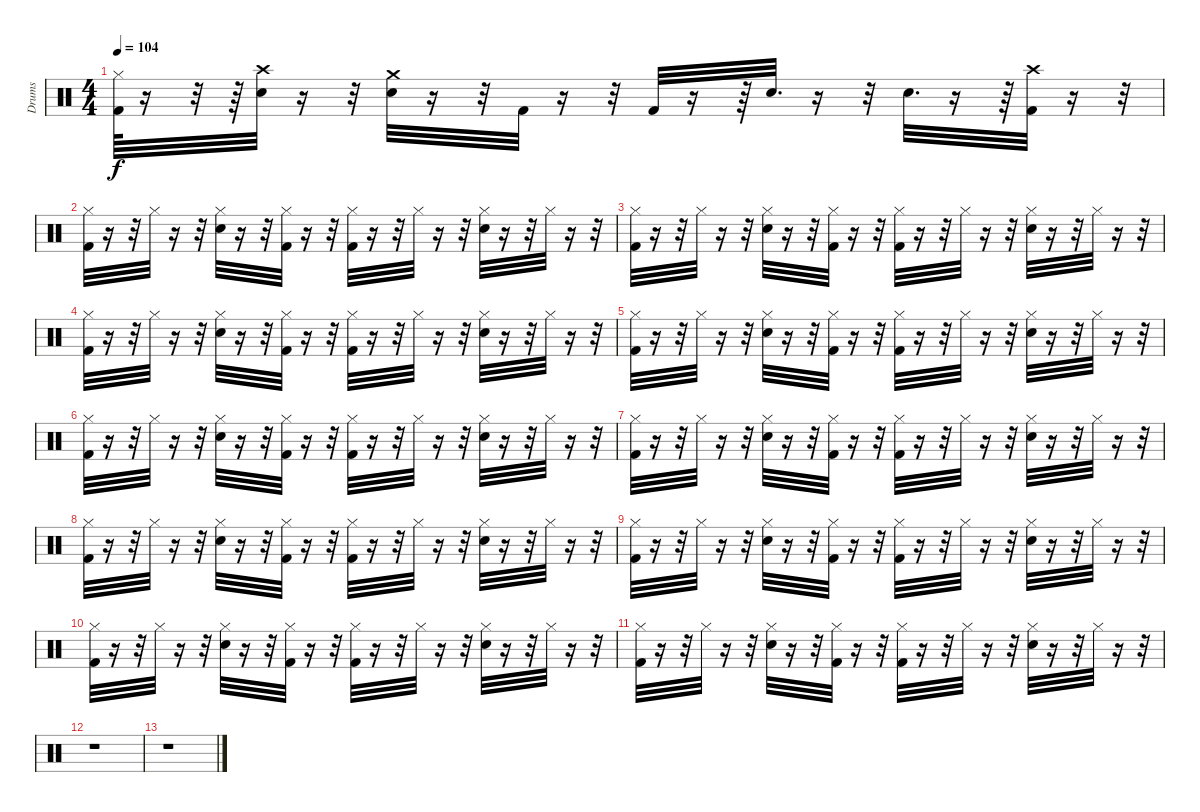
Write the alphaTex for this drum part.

\track ("Drums" "Drums") {instrument percussion}
\staff {score}
\articulation defaults
\ts (4 4)
\tempo 104
\clef neutral
\ks c
("Hi-Hat (closed)" "Kick (hit) 2").64{dy f} r.16 r.32 r.64 ("Crash high (hit)" "Snare (hit) 2").32 r.16 r.32 ("Crash medium (hit)" "Snare (hit) 2").32 r.16 r.32 "Kick (hit) 2".32 r.16 r.32 "Kick (hit) 2".32 r.16 r.64 "Snare (hit) 2".32{d} r.16 r.32 "Snare (hit) 2".32{d} r.16 r.64 ("Crash high (hit)" "Kick (hit) 2").32 r.16 r.32 |
("Hi-Hat (closed)" "Kick (hit) 2").32 r.16 r.32 "Hi-Hat (closed)".32 r.16 r.32 ("Hi-Hat (closed)" "Snare (hit) 2").32 r.16 r.32 ("Hi-Hat (closed)" "Kick (hit) 2").32 r.16 r.32 ("Hi-Hat (closed)" "Kick (hit) 2").32 r.16 r.32 "Hi-Hat (closed)".32 r.16 r.32 ("Hi-Hat (closed)" "Snare (hit) 2").32 r.16 r.32 "Hi-Hat (closed)".32 r.16 r.32 |
("Hi-Hat (closed)" "Kick (hit) 2").32 r.16 r.32 "Hi-Hat (closed)".32 r.16 r.32 ("Hi-Hat (closed)" "Snare (hit) 2").32 r.16 r.32 ("Hi-Hat (closed)" "Kick (hit) 2").32 r.16 r.32 ("Hi-Hat (closed)" "Kick (hit) 2").32 r.16 r.32 "Hi-Hat (closed)".32 r.16 r.32 ("Hi-Hat (closed)" "Snare (hit) 2").32 r.16 r.32 "Hi-Hat (closed)".32 r.16 r.32 |
("Hi-Hat (closed)" "Kick (hit) 2").32 r.16 r.32 "Hi-Hat (closed)".32 r.16 r.32 ("Hi-Hat (closed)" "Snare (hit) 2").32 r.16 r.32 ("Hi-Hat (closed)" "Kick (hit) 2").32 r.16 r.32 ("Hi-Hat (closed)" "Kick (hit) 2").32 r.16 r.32 "Hi-Hat (closed)".32 r.16 r.32 ("Hi-Hat (closed)" "Snare (hit) 2").32 r.16 r.32 "Hi-Hat (closed)".32 r.16 r.32 |
("Hi-Hat (closed)" "Kick (hit) 2").32 r.16 r.32 "Hi-Hat (closed)".32 r.16 r.32 ("Hi-Hat (closed)" "Snare (hit) 2").32 r.16 r.32 ("Hi-Hat (closed)" "Kick (hit) 2").32 r.16 r.32 ("Hi-Hat (closed)" "Kick (hit) 2").32 r.16 r.32 "Hi-Hat (closed)".32 r.16 r.32 ("Hi-Hat (closed)" "Snare (hit) 2").32 r.16 r.32 "Hi-Hat (closed)".32 r.16 r.32 |
("Hi-Hat (closed)" "Kick (hit) 2").32 r.16 r.32 "Hi-Hat (closed)".32 r.16 r.32 ("Hi-Hat (closed)" "Snare (hit) 2").32 r.16 r.32 ("Hi-Hat (closed)" "Kick (hit) 2").32 r.16 r.32 ("Hi-Hat (closed)" "Kick (hit) 2").32 r.16 r.32 "Hi-Hat (closed)".32 r.16 r.32 ("Hi-Hat (closed)" "Snare (hit) 2").32 r.16 r.32 "Hi-Hat (closed)".32 r.16 r.32 |
("Hi-Hat (closed)" "Kick (hit) 2").32 r.16 r.32 "Hi-Hat (closed)".32 r.16 r.32 ("Hi-Hat (closed)" "Snare (hit) 2").32 r.16 r.32 ("Hi-Hat (closed)" "Kick (hit) 2").32 r.16 r.32 ("Hi-Hat (closed)" "Kick (hit) 2").32 r.16 r.32 "Hi-Hat (closed)".32 r.16 r.32 ("Hi-Hat (closed)" "Snare (hit) 2").32 r.16 r.32 "Hi-Hat (closed)".32 r.16 r.32 |
("Hi-Hat (closed)" "Kick (hit) 2").32 r.16 r.32 "Hi-Hat (closed)".32 r.16 r.32 ("Hi-Hat (closed)" "Snare (hit) 2").32 r.16 r.32 ("Hi-Hat (closed)" "Kick (hit) 2").32 r.16 r.32 ("Hi-Hat (closed)" "Kick (hit) 2").32 r.16 r.32 "Hi-Hat (closed)".32 r.16 r.32 ("Hi-Hat (closed)" "Snare (hit) 2").32 r.16 r.32 "Hi-Hat (closed)".32 r.16 r.32 |
("Hi-Hat (closed)" "Kick (hit) 2").32 r.16 r.32 "Hi-Hat (closed)".32 r.16 r.32 ("Hi-Hat (closed)" "Snare (hit) 2").32 r.16 r.32 ("Hi-Hat (closed)" "Kick (hit) 2").32 r.16 r.32 ("Hi-Hat (closed)" "Kick (hit) 2").32 r.16 r.32 "Hi-Hat (closed)".32 r.16 r.32 ("Hi-Hat (closed)" "Snare (hit) 2").32 r.16 r.32 "Hi-Hat (closed)".32 r.16 r.32 |
("Hi-Hat (closed)" "Kick (hit) 2").32 r.16 r.32 "Hi-Hat (closed)".32 r.16 r.32 ("Hi-Hat (closed)" "Snare (hit) 2").32 r.16 r.32 ("Hi-Hat (closed)" "Kick (hit) 2").32 r.16 r.32 ("Hi-Hat (closed)" "Kick (hit) 2").32 r.16 r.32 "Hi-Hat (closed)".32 r.16 r.32 ("Hi-Hat (closed)" "Snare (hit) 2").32 r.16 r.32 "Hi-Hat (closed)".32 r.16 r.32 |
("Hi-Hat (closed)" "Kick (hit) 2").32 r.16 r.32 "Hi-Hat (closed)".32 r.16 r.32 ("Hi-Hat (closed)" "Snare (hit) 2").32 r.16 r.32 ("Hi-Hat (closed)" "Kick (hit) 2").32 r.16 r.32 ("Hi-Hat (closed)" "Kick (hit) 2").32 r.16 r.32 "Hi-Hat (closed)".32 r.16 r.32 ("Hi-Hat (closed)" "Snare (hit) 2").32 r.16 r.32 "Hi-Hat (closed)".32 r.16 r.32 |
r.1 |
r.1
